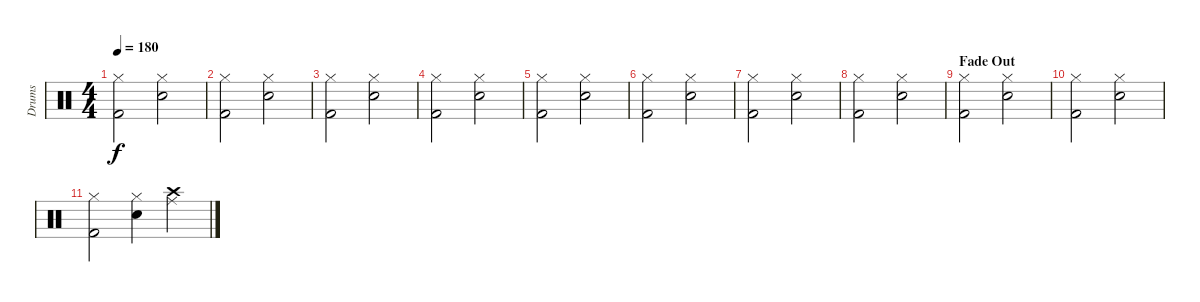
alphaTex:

\track ("Drums" "Drums") {instrument percussion}
\staff {score}
\articulation defaults
\ts (4 4)
\tempo 180
\clef neutral
\ks c
("Hi-Hat (closed)" "Kick (hit) 2").2{dy f} ("Hi-Hat (closed)" "Snare (hit) 2").2 |
("Hi-Hat (closed)" "Kick (hit) 2").2 ("Hi-Hat (closed)" "Snare (hit) 2").2 |
("Hi-Hat (closed)" "Kick (hit) 2").2 ("Hi-Hat (closed)" "Snare (hit) 2").2 |
("Hi-Hat (closed)" "Kick (hit) 2").2 ("Hi-Hat (closed)" "Snare (hit) 2").2 |
("Hi-Hat (closed)" "Kick (hit) 2").2 ("Hi-Hat (closed)" "Snare (hit) 2").2 |
("Hi-Hat (closed)" "Kick (hit) 2").2 ("Hi-Hat (closed)" "Snare (hit) 2").2 |
("Hi-Hat (closed)" "Kick (hit) 2").2 ("Hi-Hat (closed)" "Snare (hit) 2").2 |
("Hi-Hat (closed)" "Kick (hit) 2").2 ("Hi-Hat (closed)" "Snare (hit) 2").2 |
\section ("" "Fade Out")
("Hi-Hat (closed)" "Kick (hit) 2").2 ("Hi-Hat (closed)" "Snare (hit) 2").2 |
("Hi-Hat (closed)" "Kick (hit) 2").2 ("Hi-Hat (closed)" "Snare (hit) 2").2 |
("Hi-Hat (closed)" "Kick (hit) 2").2 ("Hi-Hat (closed)" "Snare (hit) 2").4 ("Ride (middle)" "Crash high (hit)").4
